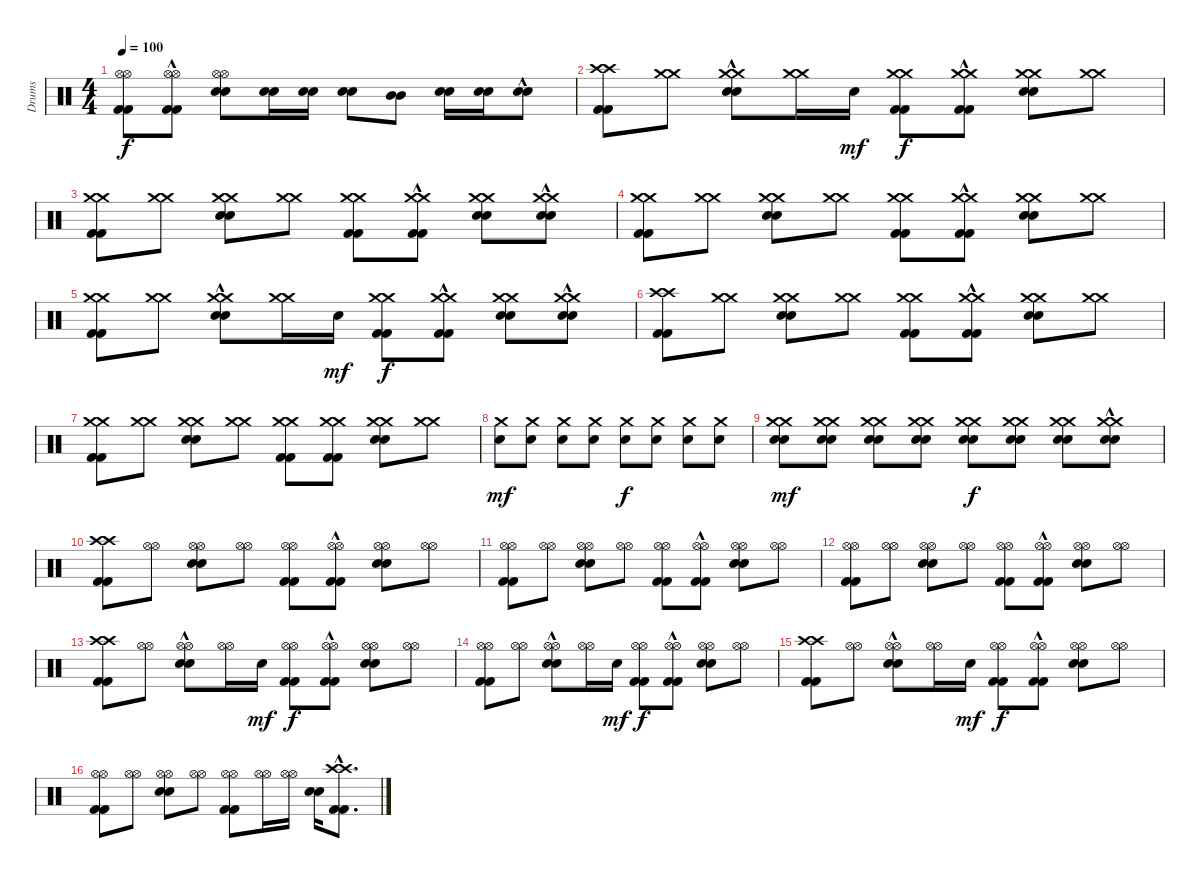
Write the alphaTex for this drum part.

\track ("Drums" "Drums") {instrument percussion}
\staff {score}
\articulation defaults
\ts (4 4)
\tempo 100
\clef neutral
\ks c
("Kick (hit) 2" "Kick (hit) 2" "Hi-Hat (open)" "Hi-Hat (open)").8{dy f} ("Kick (hit) 2"{hac} "Kick (hit) 2"{hac} "Hi-Hat (open)" "Hi-Hat (open)").8 ("Snare (hit) 2" "Snare (hit) 2" "Hi-Hat (open)" "Hi-Hat (open)").8 ("Snare (hit) 2" "Snare (hit) 2").16 ("Snare (hit) 2" "Snare (hit) 2").16 ("Snare (hit) 2" "Snare (hit) 2").8 ("Mid Tom (hit)" "Mid Tom (hit)").8 ("Snare (hit) 2" "Snare (hit) 2").16 ("Snare (hit) 2" "Snare (hit) 2").16 ("Snare (hit) 2"{hac} "Snare (hit) 2"{hac}).8 |
("Kick (hit) 2" "Kick (hit) 2" "Crash high (hit)" "Crash high (hit)").8 ("Crash medium (hit)" "Crash medium (hit)").8 ("Snare (hit) 2"{hac} "Snare (hit) 2"{hac} "Crash medium (hit)" "Crash medium (hit)").8 ("Crash medium (hit)" "Crash medium (hit)").16 "Snare (hit) 2".16{dy mf} ("Kick (hit) 2" "Kick (hit) 2" "Crash medium (hit)" "Crash medium (hit)").8{dy f} ("Kick (hit) 2"{hac} "Kick (hit) 2"{hac} "Crash medium (hit)" "Crash medium (hit)").8 ("Snare (hit) 2" "Snare (hit) 2" "Crash medium (hit)" "Crash medium (hit)").8 ("Crash medium (hit)" "Crash medium (hit)").8 |
("Kick (hit) 2" "Kick (hit) 2" "Crash medium (hit)" "Crash medium (hit)").8 ("Crash medium (hit)" "Crash medium (hit)").8 ("Snare (hit) 2" "Snare (hit) 2" "Crash medium (hit)" "Crash medium (hit)").8 ("Crash medium (hit)" "Crash medium (hit)").8 ("Kick (hit) 2" "Kick (hit) 2" "Crash medium (hit)" "Crash medium (hit)").8 ("Kick (hit) 2"{hac} "Kick (hit) 2"{hac} "Crash medium (hit)" "Crash medium (hit)").8 ("Snare (hit) 2" "Snare (hit) 2" "Crash medium (hit)" "Crash medium (hit)").8 ("Snare (hit) 2"{hac} "Snare (hit) 2"{hac} "Crash medium (hit)" "Crash medium (hit)").8 |
("Kick (hit) 2" "Kick (hit) 2" "Crash medium (hit)" "Crash medium (hit)").8 ("Crash medium (hit)" "Crash medium (hit)").8 ("Snare (hit) 2" "Snare (hit) 2" "Crash medium (hit)" "Crash medium (hit)").8 ("Crash medium (hit)" "Crash medium (hit)").8 ("Kick (hit) 2" "Kick (hit) 2" "Crash medium (hit)" "Crash medium (hit)").8 ("Kick (hit) 2"{hac} "Kick (hit) 2"{hac} "Crash medium (hit)" "Crash medium (hit)").8 ("Snare (hit) 2" "Snare (hit) 2" "Crash medium (hit)" "Crash medium (hit)").8 ("Crash medium (hit)" "Crash medium (hit)").8 |
("Kick (hit) 2" "Kick (hit) 2" "Crash medium (hit)" "Crash medium (hit)").8 ("Crash medium (hit)" "Crash medium (hit)").8 ("Snare (hit) 2"{hac} "Snare (hit) 2"{hac} "Crash medium (hit)" "Crash medium (hit)").8 ("Crash medium (hit)" "Crash medium (hit)").16 "Snare (hit) 2".16{dy mf} ("Kick (hit) 2" "Kick (hit) 2" "Crash medium (hit)" "Crash medium (hit)").8{dy f} ("Kick (hit) 2"{hac} "Kick (hit) 2"{hac} "Crash medium (hit)" "Crash medium (hit)").8 ("Snare (hit) 2" "Snare (hit) 2" "Crash medium (hit)" "Crash medium (hit)").8 ("Snare (hit) 2"{hac} "Snare (hit) 2"{hac} "Crash medium (hit)" "Crash medium (hit)").8 |
("Kick (hit) 2" "Kick (hit) 2" "Crash high (hit)" "Crash high (hit)").8 ("Crash medium (hit)" "Crash medium (hit)").8 ("Snare (hit) 2" "Snare (hit) 2" "Crash medium (hit)" "Crash medium (hit)").8 ("Crash medium (hit)" "Crash medium (hit)").8 ("Kick (hit) 2" "Kick (hit) 2" "Crash medium (hit)" "Crash medium (hit)").8 ("Kick (hit) 2"{hac} "Kick (hit) 2"{hac} "Crash medium (hit)" "Crash medium (hit)").8 ("Snare (hit) 2" "Snare (hit) 2" "Crash medium (hit)" "Crash medium (hit)").8 ("Crash medium (hit)" "Crash medium (hit)").8 |
("Kick (hit) 2" "Kick (hit) 2" "Crash medium (hit)" "Crash medium (hit)").8 ("Crash medium (hit)" "Crash medium (hit)").8 ("Snare (hit) 2" "Snare (hit) 2" "Crash medium (hit)" "Crash medium (hit)").8 ("Crash medium (hit)" "Crash medium (hit)").8 ("Kick (hit) 2" "Kick (hit) 2" "Crash medium (hit)" "Crash medium (hit)").8 ("Kick (hit) 2" "Kick (hit) 2" "Crash medium (hit)" "Crash medium (hit)").8 ("Snare (hit) 2" "Snare (hit) 2" "Crash medium (hit)" "Crash medium (hit)").8 ("Crash medium (hit)" "Crash medium (hit)").8 |
("Snare (hit) 2" "Crash medium (hit)").8{dy mf} ("Snare (hit) 2" "Crash medium (hit)").8 ("Snare (hit) 2" "Crash medium (hit)").8 ("Snare (hit) 2" "Crash medium (hit)").8 ("Snare (hit) 2" "Crash medium (hit)").8{dy f} ("Snare (hit) 2" "Crash medium (hit)").8 ("Snare (hit) 2" "Crash medium (hit)").8 ("Snare (hit) 2" "Crash medium (hit)").8 |
("Snare (hit) 2" "Snare (hit) 2" "Crash medium (hit)" "Crash medium (hit)").8{dy mf} ("Snare (hit) 2" "Snare (hit) 2" "Crash medium (hit)" "Crash medium (hit)").8 ("Snare (hit) 2" "Snare (hit) 2" "Crash medium (hit)" "Crash medium (hit)").8 ("Snare (hit) 2" "Snare (hit) 2" "Crash medium (hit)" "Crash medium (hit)").8 ("Snare (hit) 2" "Snare (hit) 2" "Crash medium (hit)" "Crash medium (hit)").8{dy f} ("Snare (hit) 2" "Snare (hit) 2" "Crash medium (hit)" "Crash medium (hit)").8 ("Snare (hit) 2" "Snare (hit) 2" "Crash medium (hit)" "Crash medium (hit)").8 ("Snare (hit) 2"{hac} "Snare (hit) 2"{hac} "Crash medium (hit)" "Crash medium (hit)").8 |
("Kick (hit) 2" "Kick (hit) 2" "Crash high (hit)" "Crash high (hit)").8 ("Hi-Hat (open)" "Hi-Hat (open)").8 ("Snare (hit) 2" "Snare (hit) 2" "Hi-Hat (open)" "Hi-Hat (open)").8 ("Hi-Hat (open)" "Hi-Hat (open)").8 ("Kick (hit) 2" "Kick (hit) 2" "Hi-Hat (open)" "Hi-Hat (open)").8 ("Kick (hit) 2"{hac} "Kick (hit) 2"{hac} "Hi-Hat (open)" "Hi-Hat (open)").8 ("Snare (hit) 2" "Snare (hit) 2" "Hi-Hat (open)" "Hi-Hat (open)").8 ("Hi-Hat (open)" "Hi-Hat (open)").8 |
("Kick (hit) 2" "Kick (hit) 2" "Hi-Hat (open)" "Hi-Hat (open)").8 ("Hi-Hat (open)" "Hi-Hat (open)").8 ("Snare (hit) 2" "Snare (hit) 2" "Hi-Hat (open)" "Hi-Hat (open)").8 ("Hi-Hat (open)" "Hi-Hat (open)").8 ("Kick (hit) 2" "Kick (hit) 2" "Hi-Hat (open)" "Hi-Hat (open)").8 ("Kick (hit) 2"{hac} "Kick (hit) 2"{hac} "Hi-Hat (open)" "Hi-Hat (open)").8 ("Snare (hit) 2" "Snare (hit) 2" "Hi-Hat (open)" "Hi-Hat (open)").8 ("Hi-Hat (open)" "Hi-Hat (open)").8 |
("Kick (hit) 2" "Kick (hit) 2" "Hi-Hat (open)" "Hi-Hat (open)").8 ("Hi-Hat (open)" "Hi-Hat (open)").8 ("Snare (hit) 2" "Snare (hit) 2" "Hi-Hat (open)" "Hi-Hat (open)").8 ("Hi-Hat (open)" "Hi-Hat (open)").8 ("Kick (hit) 2" "Kick (hit) 2" "Hi-Hat (open)" "Hi-Hat (open)").8 ("Kick (hit) 2"{hac} "Kick (hit) 2"{hac} "Hi-Hat (open)" "Hi-Hat (open)").8 ("Snare (hit) 2" "Snare (hit) 2" "Hi-Hat (open)" "Hi-Hat (open)").8 ("Hi-Hat (open)" "Hi-Hat (open)").8 |
("Kick (hit) 2" "Kick (hit) 2" "Crash high (hit)" "Crash high (hit)").8 ("Hi-Hat (open)" "Hi-Hat (open)").8 ("Snare (hit) 2"{hac} "Snare (hit) 2"{hac} "Hi-Hat (open)" "Hi-Hat (open)").8 ("Hi-Hat (open)" "Hi-Hat (open)").16 "Snare (hit) 2".16{dy mf} ("Kick (hit) 2" "Kick (hit) 2" "Hi-Hat (open)" "Hi-Hat (open)").8{dy f} ("Kick (hit) 2"{hac} "Kick (hit) 2"{hac} "Hi-Hat (open)" "Hi-Hat (open)").8 ("Snare (hit) 2" "Snare (hit) 2" "Hi-Hat (open)" "Hi-Hat (open)").8 ("Hi-Hat (open)" "Hi-Hat (open)").8 |
("Kick (hit) 2" "Kick (hit) 2" "Hi-Hat (open)" "Hi-Hat (open)").8 ("Hi-Hat (open)" "Hi-Hat (open)").8 ("Snare (hit) 2"{hac} "Snare (hit) 2"{hac} "Hi-Hat (open)" "Hi-Hat (open)").8 ("Hi-Hat (open)" "Hi-Hat (open)").16 "Snare (hit) 2".16{dy mf} ("Kick (hit) 2" "Kick (hit) 2" "Hi-Hat (open)" "Hi-Hat (open)").8{dy f} ("Kick (hit) 2"{hac} "Kick (hit) 2"{hac} "Hi-Hat (open)" "Hi-Hat (open)").8 ("Snare (hit) 2" "Snare (hit) 2" "Hi-Hat (open)" "Hi-Hat (open)").8 ("Hi-Hat (open)" "Hi-Hat (open)").8 |
("Kick (hit) 2" "Kick (hit) 2" "Crash high (hit)" "Crash high (hit)").8 ("Hi-Hat (open)" "Hi-Hat (open)").8 ("Snare (hit) 2"{hac} "Snare (hit) 2"{hac} "Hi-Hat (open)" "Hi-Hat (open)").8 ("Hi-Hat (open)" "Hi-Hat (open)").16 "Snare (hit) 2".16{dy mf} ("Kick (hit) 2" "Kick (hit) 2" "Hi-Hat (open)" "Hi-Hat (open)").8{dy f} ("Kick (hit) 2"{hac} "Kick (hit) 2"{hac} "Hi-Hat (open)" "Hi-Hat (open)").8 ("Snare (hit) 2" "Snare (hit) 2" "Hi-Hat (open)" "Hi-Hat (open)").8 ("Hi-Hat (open)" "Hi-Hat (open)").8 |
("Kick (hit) 2" "Kick (hit) 2" "Hi-Hat (open)" "Hi-Hat (open)").8 ("Hi-Hat (open)" "Hi-Hat (open)").8 ("Snare (hit) 2" "Snare (hit) 2" "Hi-Hat (open)" "Hi-Hat (open)").8 ("Hi-Hat (open)" "Hi-Hat (open)").8 ("Kick (hit) 2" "Kick (hit) 2" "Hi-Hat (open)" "Hi-Hat (open)").8 ("Hi-Hat (open)" "Hi-Hat (open)").16 ("Hi-Hat (open)" "Hi-Hat (open)").16 ("Snare (hit) 2" "Snare (hit) 2").16 ("Kick (hit) 2"{hac} "Kick (hit) 2"{hac} "Crash high (hit)" "Crash high (hit)").8{d}
